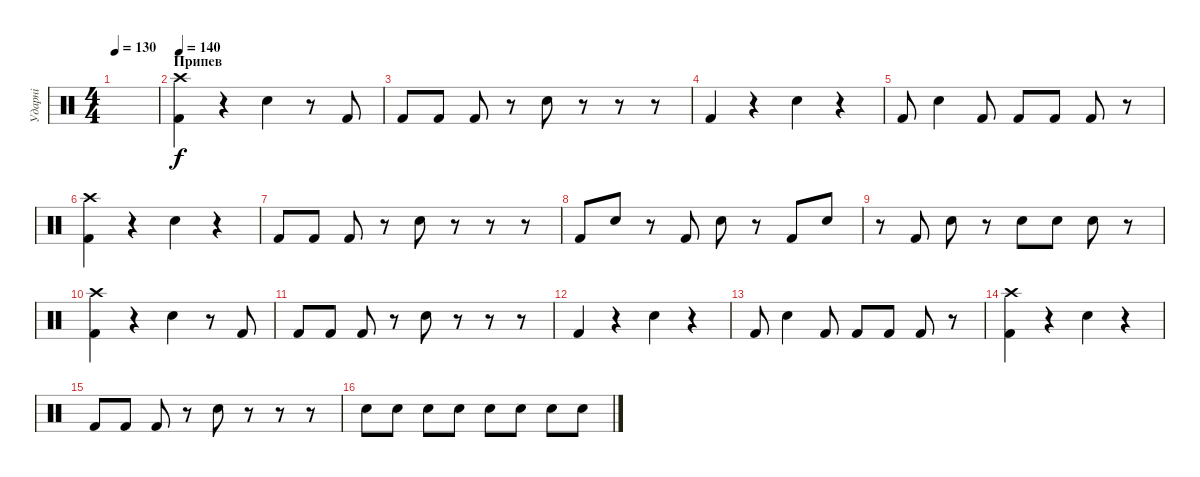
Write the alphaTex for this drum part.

\track ("Ударні" "Ударні") {instrument percussion}
\staff {score}
\articulation defaults
\ts (4 4)
\tempo 130
\clef neutral
\ks c
|
\section ("" "Припев")
\tempo 140
("Kick (hit) 2" "Crash high (hit)").4 r.4 "Snare (hit) 2".4 r.8 "Kick (hit) 2".8 |
"Kick (hit) 2".8 "Kick (hit) 2".8 "Kick (hit) 2".8 r.8 "Snare (hit) 2".8 r.8 r.8 r.8 |
"Kick (hit) 2".4 r.4 "Snare (hit) 2".4 r.4 |
"Kick (hit) 2".8 "Snare (hit) 2".4 "Kick (hit) 2".8 "Kick (hit) 2".8 "Kick (hit) 2".8 "Kick (hit) 2".8 r.8 |
("Kick (hit) 2" "Crash high (hit)").4 r.4 "Snare (hit) 2".4 r.4 |
"Kick (hit) 2".8 "Kick (hit) 2".8 "Kick (hit) 2".8 r.8 "Snare (hit) 2".8 r.8 r.8 r.8 |
"Kick (hit) 2".8 "Snare (hit) 2".8 r.8 "Kick (hit) 2".8 "Snare (hit) 2".8 r.8 "Kick (hit) 2".8 "Snare (hit) 2".8 |
r.8 "Kick (hit) 2".8 "Snare (hit) 2".8 r.8 "Snare (hit) 2".8 "Snare (hit) 2".8 "Snare (hit) 2".8 r.8 |
("Kick (hit) 2" "Crash high (hit)").4 r.4 "Snare (hit) 2".4 r.8 "Kick (hit) 2".8 |
"Kick (hit) 2".8 "Kick (hit) 2".8 "Kick (hit) 2".8 r.8 "Snare (hit) 2".8 r.8 r.8 r.8 |
"Kick (hit) 2".4 r.4 "Snare (hit) 2".4 r.4 |
"Kick (hit) 2".8 "Snare (hit) 2".4 "Kick (hit) 2".8 "Kick (hit) 2".8 "Kick (hit) 2".8 "Kick (hit) 2".8 r.8 |
("Kick (hit) 2" "Crash high (hit)").4 r.4 "Snare (hit) 2".4 r.4 |
"Kick (hit) 2".8 "Kick (hit) 2".8 "Kick (hit) 2".8 r.8 "Snare (hit) 2".8 r.8 r.8 r.8 |
"Snare (hit) 2".8 "Snare (hit) 2".8 "Snare (hit) 2".8 "Snare (hit) 2".8 "Snare (hit) 2".8 "Snare (hit) 2".8 "Snare (hit) 2".8 "Snare (hit) 2".8
